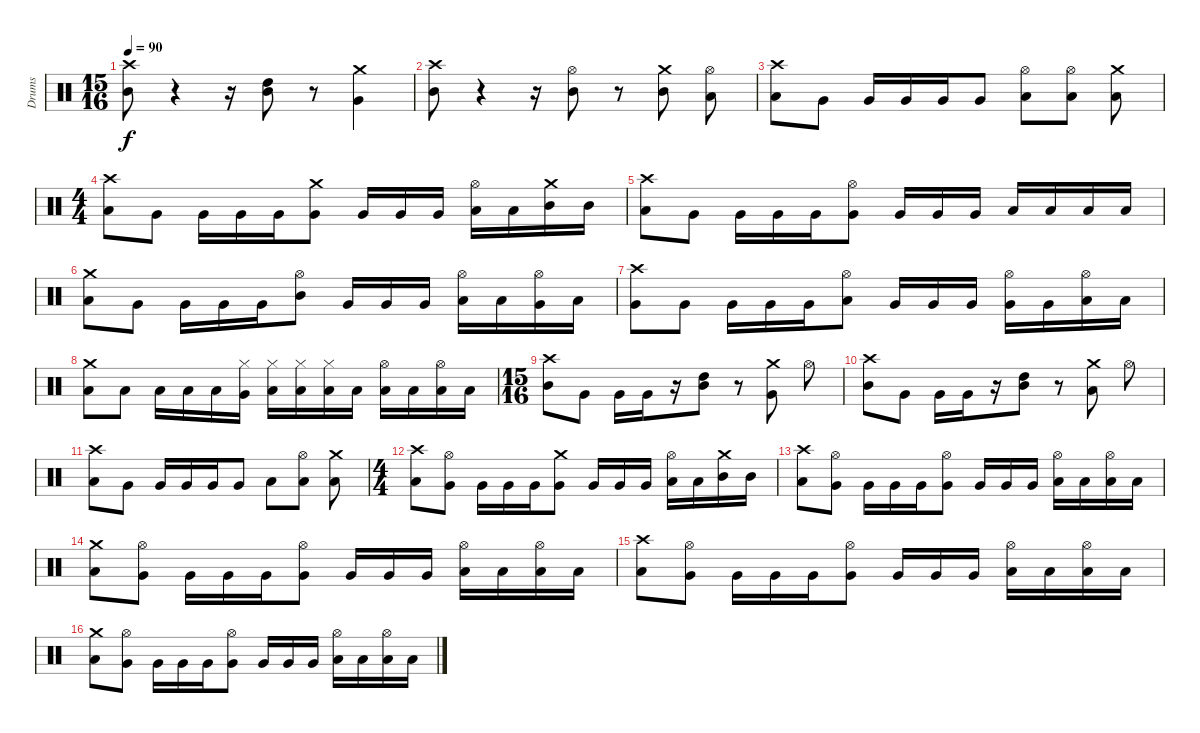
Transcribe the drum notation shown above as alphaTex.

\track ("Drums" "Drums") {instrument percussion}
\staff {score}
\articulation defaults
\ts (15 16)
\section ("" "")
\tempo 90
\clef neutral
\ks c
("Crash high (hit)" "Mid Tom (hit)").8{dy f} r.4 r.16 ("High Tom (hit)" "Mid Tom (hit)").8 r.8 ("Crash medium (hit)" "Very Low Tom (hit)").4 |
("Crash high (hit)" "Mid Tom (hit)").8 r.4 r.16 ("Hi-Hat (open)" "Mid Tom (hit)").8 r.8 ("Crash medium (hit)" "Mid Tom (hit)").8 ("Hi-Hat (open)" "Low Tom (hit)").8 |
("Crash high (hit)" "Low Tom (hit)").8 "Very Low Tom (hit)".8 "Very Low Tom (hit)".16 "Very Low Tom (hit)".16 "Very Low Tom (hit)".16 "Very Low Tom (hit)".8 ("Hi-Hat (open)" "Low Tom (hit)").8 ("Hi-Hat (open)" "Low Tom (hit)").8 ("Crash medium (hit)" "Low Tom (hit)").8 |
\ts (4 4)
("Crash high (hit)" "Low Tom (hit)").8 "Very Low Tom (hit)".8 "Very Low Tom (hit)".16 "Very Low Tom (hit)".16 "Very Low Tom (hit)".16 ("Crash medium (hit)" "Very Low Tom (hit)").8 "Very Low Tom (hit)".16 "Very Low Tom (hit)".16 "Very Low Tom (hit)".16 ("Hi-Hat (open)" "Low Tom (hit)").16 "Low Tom (hit)".16 ("Crash medium (hit)" "Mid Tom (hit)").16 "Mid Tom (hit)".16 |
("Crash high (hit)" "Low Tom (hit)").8 "Very Low Tom (hit)".8 "Very Low Tom (hit)".16 "Very Low Tom (hit)".16 "Very Low Tom (hit)".16 ("Hi-Hat (open)" "Very Low Tom (hit)").8 "Very Low Tom (hit)".16 "Very Low Tom (hit)".16 "Very Low Tom (hit)".16 "Low Tom (hit)".16 "Low Tom (hit)".16 "Low Tom (hit)".16 "Low Tom (hit)".16 |
("Crash medium (hit)" "Low Tom (hit)").8 "Very Low Tom (hit)".8 "Very Low Tom (hit)".16 "Very Low Tom (hit)".16 "Very Low Tom (hit)".16 ("Hi-Hat (open)" "Mid Tom (hit)").8 "Very Low Tom (hit)".16 "Very Low Tom (hit)".16 "Very Low Tom (hit)".16 ("Hi-Hat (open)" "Low Tom (hit)").16 "Low Tom (hit)".16 ("Hi-Hat (open)" "Very Low Tom (hit)").16 "Low Floor Tom (hit)".16 |
("Crash high (hit)" "Very Low Tom (hit)").8 "Very Low Tom (hit)".8 "Very Low Tom (hit)".16 "Very Low Tom (hit)".16 "Very Low Tom (hit)".16 ("Hi-Hat (open)" "Low Tom (hit)").8 "Very Low Tom (hit)".16 "Very Low Tom (hit)".16 "Very Low Tom (hit)".16 ("Hi-Hat (open)" "Very Low Tom (hit)").16 "Very Low Tom (hit)".16 ("Hi-Hat (open)" "Low Floor Tom (hit)").16 "Low Floor Tom (hit)".16 |
("Crash medium (hit)" "Low Floor Tom (hit)").8 "Low Floor Tom (hit)".8 "Low Floor Tom (hit)".16 "Low Floor Tom (hit)".16 "Low Floor Tom (hit)".16 ("Hi-Hat (closed)" "Very Low Tom (hit)").16 ("Hi-Hat (closed)" "Low Floor Tom (hit)").16 ("Hi-Hat (closed)" "Low Floor Tom (hit)").16 ("Hi-Hat (closed)" "Low Floor Tom (hit)").16 "Low Floor Tom (hit)".16 ("Hi-Hat (open)" "Low Floor Tom (hit)").16 "Low Floor Tom (hit)".16 ("Hi-Hat (open)" "Low Floor Tom (hit)").16 "Low Floor Tom (hit)".16 |
\ts (15 16)
("Crash high (hit)" "Mid Tom (hit)").8 "Very Low Tom (hit)".8 "Very Low Tom (hit)".16 "Very Low Tom (hit)".16 r.16 ("High Tom (hit)" "Mid Tom (hit)").8 r.8 ("Crash medium (hit)" "Very Low Tom (hit)").8 "Hi-Hat (open)".8 |
("Crash high (hit)" "Mid Tom (hit)").8 "Very Low Tom (hit)".8 "Very Low Tom (hit)".16 "Very Low Tom (hit)".16 r.16 ("High Tom (hit)" "Mid Tom (hit)").8 r.8 ("Crash medium (hit)" "Low Floor Tom (hit)").8 "Hi-Hat (open)".8 |
("Crash high (hit)" "Low Tom (hit)").8 "Very Low Tom (hit)".8 "Very Low Tom (hit)".16 "Very Low Tom (hit)".16 "Very Low Tom (hit)".16 "Very Low Tom (hit)".8 "Low Tom (hit)".8 ("Hi-Hat (open)" "Low Tom (hit)").8 ("Crash medium (hit)" "Low Tom (hit)").8 |
\ts (4 4)
("Crash high (hit)" "Low Tom (hit)").8 ("Hi-Hat (open)" "Very Low Tom (hit)").8 "Very Low Tom (hit)".16 "Very Low Tom (hit)".16 "Very Low Tom (hit)".16 ("Crash medium (hit)" "Very Low Tom (hit)").8 "Very Low Tom (hit)".16 "Very Low Tom (hit)".16 "Very Low Tom (hit)".16 ("Hi-Hat (open)" "Low Tom (hit)").16 "Low Tom (hit)".16 ("Crash medium (hit)" "Mid Tom (hit)").16 "Mid Tom (hit)".16 |
("Crash high (hit)" "Low Tom (hit)").8 ("Hi-Hat (open)" "Very Low Tom (hit)").8 "Very Low Tom (hit)".16 "Very Low Tom (hit)".16 "Very Low Tom (hit)".16 ("Hi-Hat (open)" "Very Low Tom (hit)").8 "Very Low Tom (hit)".16 "Very Low Tom (hit)".16 "Very Low Tom (hit)".16 ("Hi-Hat (open)" "Low Tom (hit)").16 "Low Tom (hit)".16 ("Hi-Hat (open)" "Low Tom (hit)").16 "Low Tom (hit)".16 |
("Crash medium (hit)" "Low Tom (hit)").8 ("Hi-Hat (open)" "Very Low Tom (hit)").8 "Very Low Tom (hit)".16 "Very Low Tom (hit)".16 "Very Low Tom (hit)".16 ("Hi-Hat (open)" "Very Low Tom (hit)").8 "Very Low Tom (hit)".16 "Very Low Tom (hit)".16 "Very Low Tom (hit)".16 ("Hi-Hat (open)" "Low Floor Tom (hit)").16 "Low Floor Tom (hit)".16 ("Hi-Hat (open)" "Low Floor Tom (hit)").16 "Low Floor Tom (hit)".16 |
("Crash high (hit)" "Low Tom (hit)").8 ("Hi-Hat (open)" "Very Low Tom (hit)").8 "Very Low Tom (hit)".16 "Very Low Tom (hit)".16 "Very Low Tom (hit)".16 ("Hi-Hat (open)" "Very Low Tom (hit)").8 "Very Low Tom (hit)".16 "Very Low Tom (hit)".16 "Very Low Tom (hit)".16 ("Hi-Hat (open)" "Low Tom (hit)").16 "Low Tom (hit)".16 ("Hi-Hat (open)" "Low Tom (hit)").16 "Low Tom (hit)".16 |
("Crash medium (hit)" "Low Tom (hit)").8 ("Hi-Hat (open)" "Very Low Tom (hit)").8 "Very Low Tom (hit)".16 "Very Low Tom (hit)".16 "Very Low Tom (hit)".16 ("Hi-Hat (open)" "Very Low Tom (hit)").8 "Very Low Tom (hit)".16 "Very Low Tom (hit)".16 "Very Low Tom (hit)".16 ("Hi-Hat (open)" "Low Floor Tom (hit)").16 "Low Floor Tom (hit)".16 ("Hi-Hat (open)" "Low Floor Tom (hit)").16 "Low Floor Tom (hit)".16
